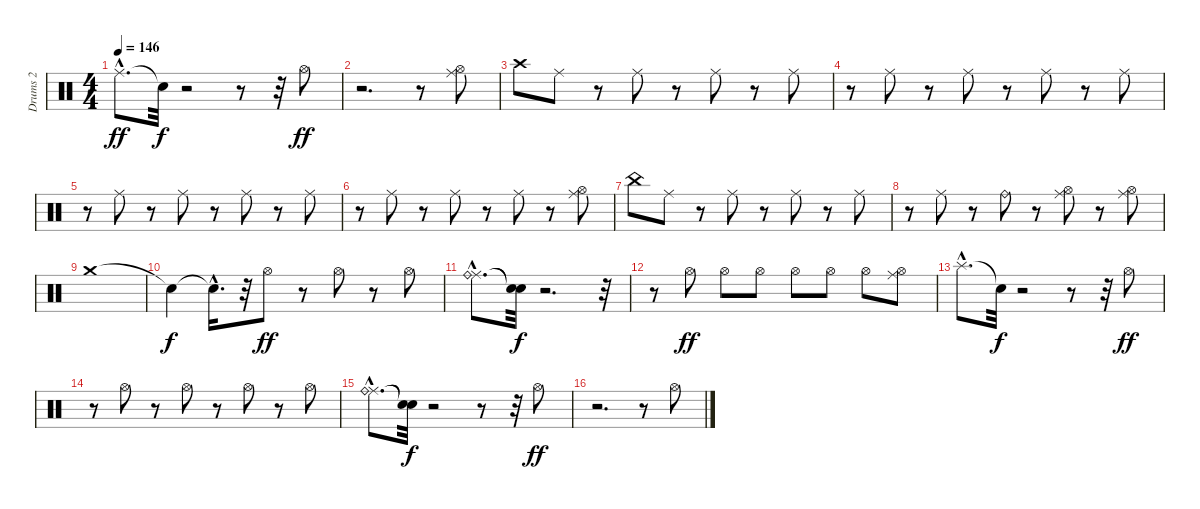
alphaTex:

\track ("Drums 2" "Drums 2") {instrument percussion}
\staff {score}
\articulation defaults
\ts (4 4)
\tempo 146
\clef neutral
\ks c "Ride (middle)"{hac}.8{d dy ff} "Snare (hit)"{t}.32{dy f}
r.2 r.8 r.32 "Hi-Hat (open)".8{dy ff} |
r.2{d} r.8 ("Hi-Hat (open)" "Ride (middle)").8 |
"Crash high (hit)".8 "Ride (middle)".8 r.8 "Ride (middle)".8 r.8 "Ride (middle)".8 r.8 "Ride (middle)".8 |
r.8 "Ride (middle)".8 r.8 "Ride (middle)".8 r.8 "Ride (middle)".8 r.8 "Ride (middle)".8 |
r.8 "Ride (middle)".8 r.8 "Ride (middle)".8 r.8 "Ride (middle)".8 r.8 "Ride (middle)".8 |
r.8 "Ride (middle)".8 r.8 "Ride (middle)".8 r.8 "Ride (middle)".8 r.8 ("Hi-Hat (open)" "Ride (middle)").8 |
"China (hit)".8 "Ride (middle)".8 r.8 "Ride (middle)".8 r.8 "Ride (middle)".8 r.8 "Ride (middle)".8 |
r.8 "Ride (middle)".8 r.8 "Ride (bell)".8 r.8 ("Hi-Hat (open)" "Ride (middle)").8 r.8 ("Hi-Hat (open)" "Ride (middle)").8 |
"Crash medium (hit)".1 |
"Snare (hit)"{t}.4{dy f} "Snare (hit)"{hac t}.16{d} r.32 "Hi-Hat (open)".8{dy ff} r.8 "Hi-Hat (open)".8 r.8 "Hi-Hat (open)".8 |
("Ride (middle)"{hac} "Ride (bell)"{hac}).8{d} ("Snare (hit)"{t} "Snare (hit)"{t}).32{dy f} r.2{d} r.32 |
r.8 "Hi-Hat (open)".8{dy ff} "Hi-Hat (open)".8 "Hi-Hat (open)".8 "Hi-Hat (open)".8 "Hi-Hat (open)".8 "Hi-Hat (open)".8 ("Hi-Hat (open)" "Ride (middle)").8 |
"Splash (hit)"{hac}.8{d} "Snare (hit)"{t}.32{dy f} r.2 r.8 r.32 "Hi-Hat (open)".8{dy ff} |
r.8 "Hi-Hat (open)".8 r.8 "Hi-Hat (open)".8 r.8 "Hi-Hat (open)".8 r.8 "Hi-Hat (open)".8 |
("Ride (middle)"{hac} "Ride (bell)"{hac}).8{d} ("Snare (hit)"{t} "Snare (hit)"{t}).32{dy f} r.2 r.8 r.32 "Hi-Hat (open)".8{dy ff} |
r.2{d} r.8 "Hi-Hat (open)".8
